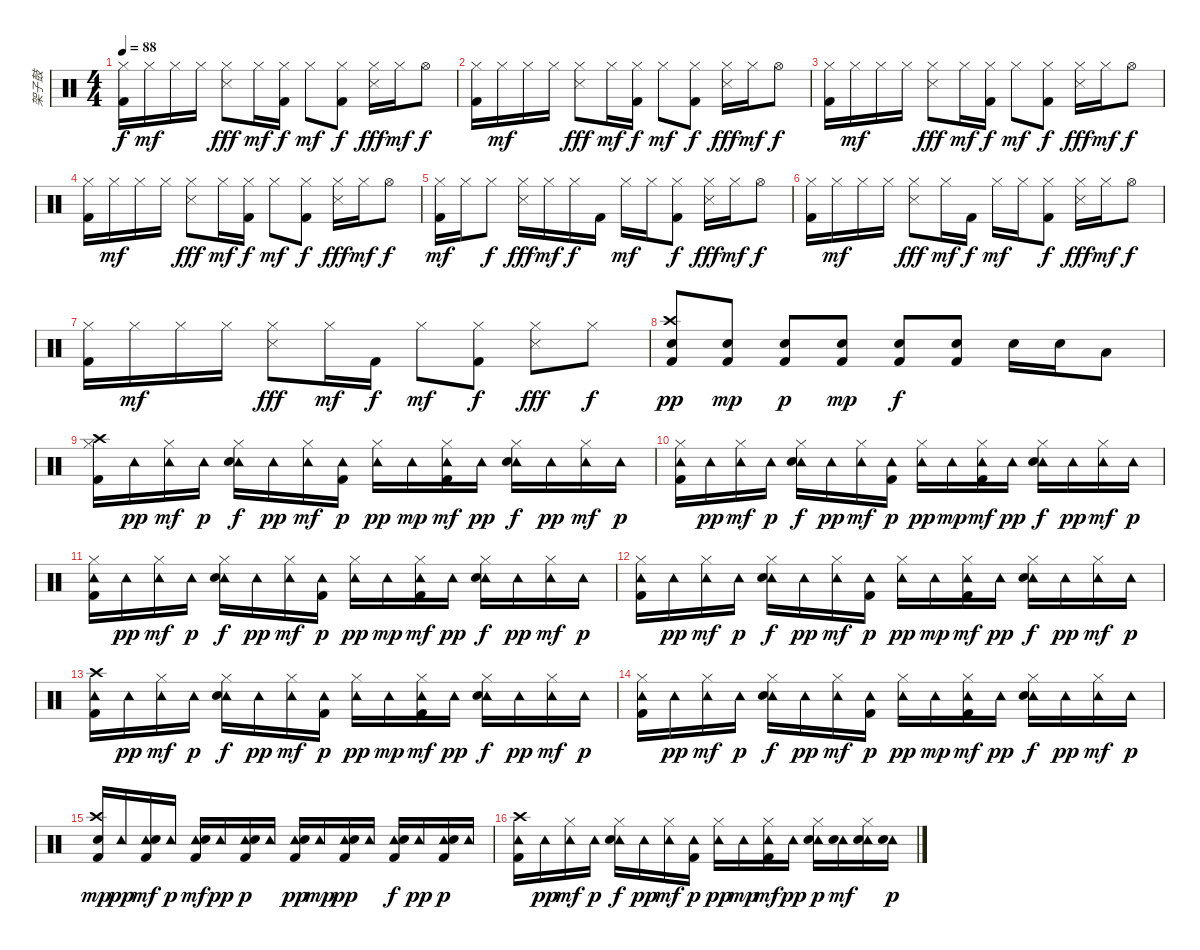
\track ("架子鼓" "架子鼓") {instrument percussion}
\staff {score}
\articulation defaults
\ts (4 4)
\tempo 88
\clef neutral
\ks c
("Hi-Hat (closed)" "Kick (hit) 2").16{dy f} "Hi-Hat (closed)".16{dy mf} "Hi-Hat (closed)".16 "Hi-Hat (closed)".16 ("Hi-Hat (closed)" "Snare (side stick) 3").8{dy fff} "Hi-Hat (closed)".16{dy mf} ("Hi-Hat (closed)" "Kick (hit) 2").16{dy f} "Hi-Hat (closed)".8{dy mf} ("Hi-Hat (closed)" "Kick (hit) 2").8{dy f} ("Hi-Hat (closed)" "Snare (side stick) 3").16{dy fff} "Hi-Hat (closed)".16{dy mf} "Hi-Hat (open)".8{dy f} |
("Hi-Hat (closed)" "Kick (hit) 2").16 "Hi-Hat (closed)".16{dy mf} "Hi-Hat (closed)".16 "Hi-Hat (closed)".16 ("Hi-Hat (closed)" "Snare (side stick) 3").8{dy fff} "Hi-Hat (closed)".16{dy mf} ("Hi-Hat (closed)" "Kick (hit) 2").16{dy f} "Hi-Hat (closed)".8{dy mf} ("Hi-Hat (closed)" "Kick (hit) 2").8{dy f} ("Hi-Hat (closed)" "Snare (side stick) 3").16{dy fff} "Hi-Hat (closed)".16{dy mf} "Hi-Hat (open)".8{dy f} |
("Hi-Hat (closed)" "Kick (hit) 2").16 "Hi-Hat (closed)".16{dy mf} "Hi-Hat (closed)".16 "Hi-Hat (closed)".16 ("Hi-Hat (closed)" "Snare (side stick) 3").8{dy fff} "Hi-Hat (closed)".16{dy mf} ("Hi-Hat (closed)" "Kick (hit) 2").16{dy f} "Hi-Hat (closed)".8{dy mf} ("Hi-Hat (closed)" "Kick (hit) 2").8{dy f} ("Hi-Hat (closed)" "Snare (side stick) 3").16{dy fff} "Hi-Hat (closed)".16{dy mf} "Hi-Hat (open)".8{dy f} |
("Hi-Hat (closed)" "Kick (hit) 2").16 "Hi-Hat (closed)".16{dy mf} "Hi-Hat (closed)".16 "Hi-Hat (closed)".16 ("Hi-Hat (closed)" "Snare (side stick) 3").8{dy fff} "Hi-Hat (closed)".16{dy mf} ("Hi-Hat (closed)" "Kick (hit) 2").16{dy f} "Hi-Hat (closed)".8{dy mf} ("Hi-Hat (closed)" "Kick (hit) 2").8{dy f} ("Hi-Hat (closed)" "Snare (side stick) 3").16{dy fff} "Hi-Hat (closed)".16{dy mf} "Hi-Hat (open)".8{dy f} |
("Hi-Hat (closed)" "Kick (hit) 2").16{dy mf} "Hi-Hat (closed)".16 "Hi-Hat (closed)".8{dy f} ("Hi-Hat (closed)" "Snare (side stick) 3").16{dy fff} "Hi-Hat (closed)".16{dy mf} "Hi-Hat (closed)".16{dy f} "Kick (hit) 2".16 "Hi-Hat (closed)".16{dy mf} "Hi-Hat (closed)".16 ("Hi-Hat (closed)" "Kick (hit) 2").8{dy f} ("Hi-Hat (closed)" "Snare (side stick) 3").16{dy fff} "Hi-Hat (closed)".16{dy mf} "Hi-Hat (open)".8{dy f} |
("Hi-Hat (closed)" "Kick (hit) 2").16 "Hi-Hat (closed)".16{dy mf} "Hi-Hat (closed)".16 "Hi-Hat (closed)".16 ("Hi-Hat (closed)" "Snare (side stick) 3").8{dy fff} "Hi-Hat (closed)".16{dy mf} "Kick (hit) 2".16{dy f} "Hi-Hat (closed)".16{dy mf} "Hi-Hat (closed)".16 ("Hi-Hat (closed)" "Kick (hit) 2").8{dy f} ("Hi-Hat (closed)" "Snare (side stick) 3").16{dy fff} "Hi-Hat (closed)".16{dy mf} "Hi-Hat (open)".8{dy f} |
("Hi-Hat (closed)" "Kick (hit) 2").16 "Hi-Hat (closed)".16{dy mf} "Hi-Hat (closed)".16 "Hi-Hat (closed)".16 ("Hi-Hat (closed)" "Snare (side stick) 3").8{dy fff} "Hi-Hat (closed)".16{dy mf} "Kick (hit) 2".16{dy f} "Hi-Hat (closed)".8{dy mf} ("Hi-Hat (closed)" "Kick (hit) 2").8{dy f} ("Hi-Hat (closed)" "Snare (side stick) 3").8{dy fff} "Hi-Hat (closed)".8{dy f} |
("Crash high (hit)" "Electric Snare (hit)" "Kick (hit) 2").8{dy pp} ("Electric Snare (hit)" "Kick (hit) 2").8{dy mp} ("Electric Snare (hit)" "Kick (hit) 2").8{dy p} ("Electric Snare (hit)" "Kick (hit) 2").8{dy mp} ("Electric Snare (hit)" "Kick (hit) 2").8{dy f} ("Electric Snare (hit)" "Kick (hit) 2").8 "Electric Snare (hit)".16 "Electric Snare (hit)".16 "Low Tom (hit)".8 |
("Crash high (hit)" "Kick (hit) 2" "Hi-Hat (closed)").16 "Tambourine (hit)".16{dy pp} ("Tambourine (hit)" "Hi-Hat (closed)").16{dy mf} "Tambourine (hit)".16{dy p} ("Tambourine (hit)" "Electric Snare (hit)" "Hi-Hat (closed)").16{dy f} "Tambourine (hit)".16{dy pp} ("Tambourine (hit)" "Hi-Hat (closed)").16{dy mf} ("Tambourine (hit)" "Kick (hit) 2").16{dy p} ("Tambourine (hit)" "Hi-Hat (closed)").16{dy pp} "Tambourine (hit)".16{dy mp} ("Tambourine (hit)" "Kick (hit) 2" "Hi-Hat (closed)").16{dy mf} "Tambourine (hit)".16{dy pp} ("Tambourine (hit)" "Electric Snare (hit)" "Hi-Hat (closed)").16{dy f} "Tambourine (hit)".16{dy pp} ("Tambourine (hit)" "Hi-Hat (closed)").16{dy mf} "Tambourine (hit)".16{dy p} |
("Tambourine (hit)" "Kick (hit) 2" "Hi-Hat (closed)").16 "Tambourine (hit)".16{dy pp} ("Tambourine (hit)" "Hi-Hat (closed)").16{dy mf} "Tambourine (hit)".16{dy p} ("Tambourine (hit)" "Electric Snare (hit)" "Hi-Hat (closed)").16{dy f} "Tambourine (hit)".16{dy pp} ("Tambourine (hit)" "Hi-Hat (closed)").16{dy mf} ("Tambourine (hit)" "Kick (hit) 2").16{dy p} ("Tambourine (hit)" "Hi-Hat (closed)").16{dy pp} "Tambourine (hit)".16{dy mp} ("Tambourine (hit)" "Kick (hit) 2" "Hi-Hat (closed)").16{dy mf} "Tambourine (hit)".16{dy pp} ("Tambourine (hit)" "Electric Snare (hit)" "Hi-Hat (closed)").16{dy f} "Tambourine (hit)".16{dy pp} ("Tambourine (hit)" "Hi-Hat (closed)").16{dy mf} "Tambourine (hit)".16{dy p} |
("Tambourine (hit)" "Kick (hit) 2" "Hi-Hat (closed)").16 "Tambourine (hit)".16{dy pp} ("Tambourine (hit)" "Hi-Hat (closed)").16{dy mf} "Tambourine (hit)".16{dy p} ("Tambourine (hit)" "Electric Snare (hit)" "Hi-Hat (closed)").16{dy f} "Tambourine (hit)".16{dy pp} ("Tambourine (hit)" "Hi-Hat (closed)").16{dy mf} ("Tambourine (hit)" "Kick (hit) 2").16{dy p} ("Tambourine (hit)" "Hi-Hat (closed)").16{dy pp} "Tambourine (hit)".16{dy mp} ("Tambourine (hit)" "Kick (hit) 2" "Hi-Hat (closed)").16{dy mf} "Tambourine (hit)".16{dy pp} ("Tambourine (hit)" "Electric Snare (hit)" "Hi-Hat (closed)").16{dy f} "Tambourine (hit)".16{dy pp} ("Tambourine (hit)" "Hi-Hat (closed)").16{dy mf} "Tambourine (hit)".16{dy p} |
("Tambourine (hit)" "Kick (hit) 2" "Hi-Hat (closed)").16 "Tambourine (hit)".16{dy pp} ("Tambourine (hit)" "Hi-Hat (closed)").16{dy mf} "Tambourine (hit)".16{dy p} ("Tambourine (hit)" "Electric Snare (hit)" "Hi-Hat (closed)").16{dy f} "Tambourine (hit)".16{dy pp} ("Tambourine (hit)" "Hi-Hat (closed)").16{dy mf} ("Tambourine (hit)" "Kick (hit) 2").16{dy p} ("Tambourine (hit)" "Hi-Hat (closed)").16{dy pp} "Tambourine (hit)".16{dy mp} ("Tambourine (hit)" "Kick (hit) 2" "Hi-Hat (closed)").16{dy mf} "Tambourine (hit)".16{dy pp} ("Tambourine (hit)" "Electric Snare (hit)" "Hi-Hat (closed)").16{dy f} "Tambourine (hit)".16{dy pp} ("Tambourine (hit)" "Hi-Hat (closed)").16{dy mf} "Tambourine (hit)".16{dy p} |
("Tambourine (hit)" "Kick (hit) 2" "Crash high (hit)").16 "Tambourine (hit)".16{dy pp} ("Tambourine (hit)" "Hi-Hat (closed)").16{dy mf} "Tambourine (hit)".16{dy p} ("Tambourine (hit)" "Electric Snare (hit)" "Hi-Hat (closed)").16{dy f} "Tambourine (hit)".16{dy pp} ("Tambourine (hit)" "Hi-Hat (closed)").16{dy mf} ("Tambourine (hit)" "Kick (hit) 2").16{dy p} ("Tambourine (hit)" "Hi-Hat (closed)").16{dy pp} "Tambourine (hit)".16{dy mp} ("Tambourine (hit)" "Kick (hit) 2" "Hi-Hat (closed)").16{dy mf} "Tambourine (hit)".16{dy pp} ("Tambourine (hit)" "Electric Snare (hit)" "Hi-Hat (closed)").16{dy f} "Tambourine (hit)".16{dy pp} ("Tambourine (hit)" "Hi-Hat (closed)").16{dy mf} "Tambourine (hit)".16{dy p} |
("Tambourine (hit)" "Kick (hit) 2" "Hi-Hat (closed)").16 "Tambourine (hit)".16{dy pp} ("Tambourine (hit)" "Hi-Hat (closed)").16{dy mf} "Tambourine (hit)".16{dy p} ("Tambourine (hit)" "Electric Snare (hit)" "Hi-Hat (closed)").16{dy f} "Tambourine (hit)".16{dy pp} ("Tambourine (hit)" "Hi-Hat (closed)").16{dy mf} ("Tambourine (hit)" "Kick (hit) 2").16{dy p} ("Tambourine (hit)" "Hi-Hat (closed)").16{dy pp} "Tambourine (hit)".16{dy mp} ("Tambourine (hit)" "Kick (hit) 2" "Hi-Hat (closed)").16{dy mf} "Tambourine (hit)".16{dy pp} ("Tambourine (hit)" "Electric Snare (hit)" "Hi-Hat (closed)").16{dy f} "Tambourine (hit)".16{dy pp} ("Tambourine (hit)" "Hi-Hat (closed)").16{dy mf} "Tambourine (hit)".16{dy p} |
("Crash high (hit)" "Kick (hit) 2" "Electric Snare (hit)").16{dy mp} "Tambourine (hit)".16{dy pp} ("Tambourine (hit)" "Kick (hit) 2" "Electric Snare (hit)").16{dy mf} "Tambourine (hit)".16{dy p} ("Tambourine (hit)" "Kick (hit) 2" "Electric Snare (hit)").16{dy mf} "Tambourine (hit)".16{dy pp} ("Tambourine (hit)" "Kick (hit) 2" "Electric Snare (hit)").16{dy p} "Tambourine (hit)".16 ("Tambourine (hit)" "Kick (hit) 2" "Electric Snare (hit)").16{dy pp} "Tambourine (hit)".16{dy mp} ("Tambourine (hit)" "Kick (hit) 2" "Electric Snare (hit)").16{dy pp} "Tambourine (hit)".16 ("Tambourine (hit)" "Kick (hit) 2" "Electric Snare (hit)").16{dy f} "Tambourine (hit)".16{dy pp} ("Tambourine (hit)" "Kick (hit) 2" "Electric Snare (hit)").16{dy p} "Tambourine (hit)".16 |
("Tambourine (hit)" "Kick (hit) 2" "Crash high (hit)").16 "Tambourine (hit)".16{dy pp} ("Tambourine (hit)" "Hi-Hat (closed)").16{dy mf} "Tambourine (hit)".16{dy p} ("Tambourine (hit)" "Electric Snare (hit)" "Hi-Hat (closed)").16{dy f} "Tambourine (hit)".16{dy pp} ("Tambourine (hit)" "Hi-Hat (closed)").16{dy mf} ("Tambourine (hit)" "Kick (hit) 2").16{dy p} ("Tambourine (hit)" "Hi-Hat (closed)").16{dy pp} "Tambourine (hit)".16{dy mp} ("Tambourine (hit)" "Kick (hit) 2" "Hi-Hat (closed)").16{dy mf} "Tambourine (hit)".16{dy pp} ("Tambourine (hit)" "Electric Snare (hit)" "Hi-Hat (closed)").16{dy p} ("Tambourine (hit)" "Electric Snare (hit)").16{dy mf} ("Tambourine (hit)" "Electric Snare (hit)" "Hi-Hat (closed)").16 ("Tambourine (hit)" "Electric Snare (hit)").16{dy p}
